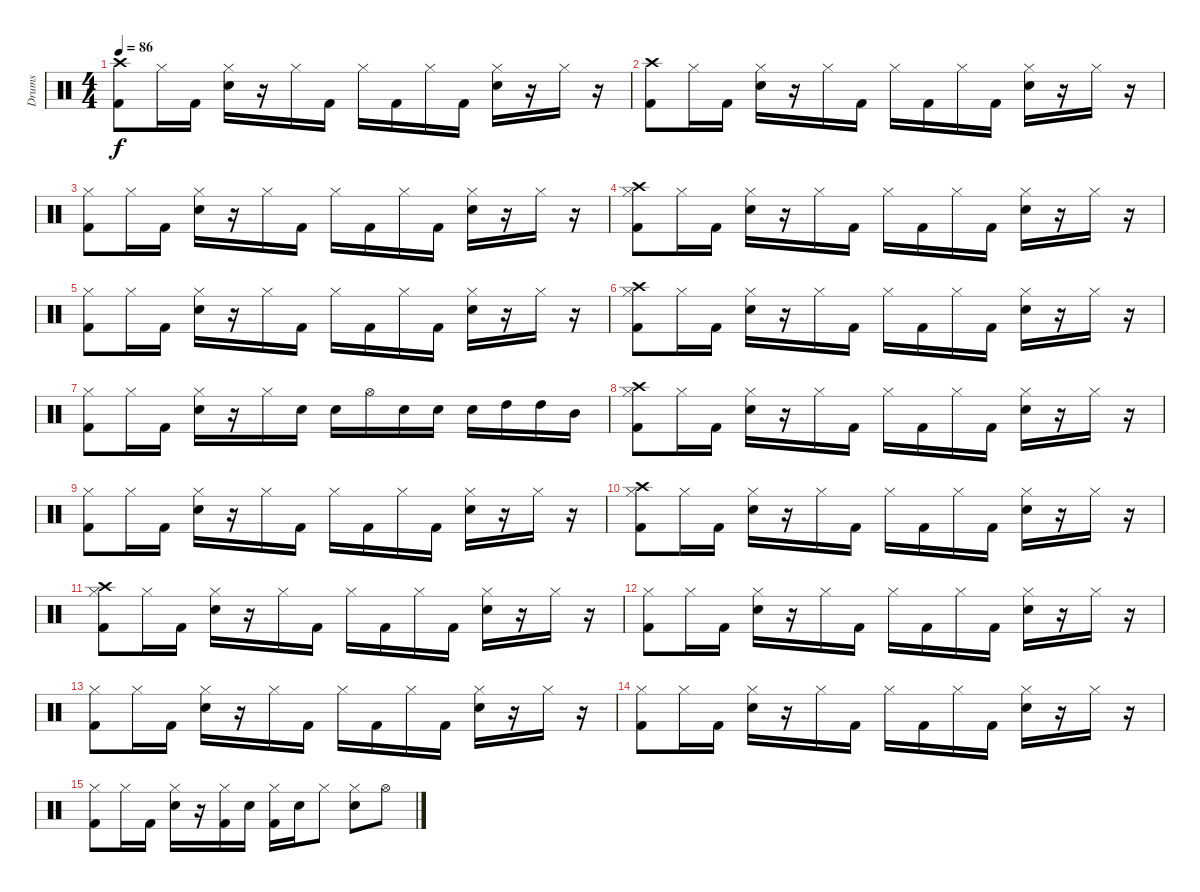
\track ("Drums" "Drums") {instrument percussion}
\staff {score}
\articulation defaults
\ts (4 4)
\tempo 86
\clef neutral
\ks c
("Kick (hit) 2" "Crash high (hit)").8{dy f} "Hi-Hat (closed)".16 "Kick (hit) 2".16 ("Snare (hit) 2" "Hi-Hat (closed)").16 r.16 "Hi-Hat (closed)".16 "Kick (hit) 2".16 "Hi-Hat (closed)".16 "Kick (hit) 2".16 "Hi-Hat (closed)".16 "Kick (hit) 2".16 ("Snare (hit) 2" "Hi-Hat (closed)").16 r.16 "Hi-Hat (closed)".16 r.16 |
("Kick (hit) 2" "Crash high (hit)").8 "Hi-Hat (closed)".16 "Kick (hit) 2".16 ("Snare (hit) 2" "Hi-Hat (closed)").16 r.16 "Hi-Hat (closed)".16 "Kick (hit) 2".16 "Hi-Hat (closed)".16 "Kick (hit) 2".16 "Hi-Hat (closed)".16 "Kick (hit) 2".16 ("Snare (hit) 2" "Hi-Hat (closed)").16 r.16 "Hi-Hat (closed)".16 r.16 |
("Kick (hit) 2" "Hi-Hat (closed)").8 "Hi-Hat (closed)".16 "Kick (hit) 2".16 ("Snare (hit) 2" "Hi-Hat (closed)").16 r.16 "Hi-Hat (closed)".16 "Kick (hit) 2".16 "Hi-Hat (closed)".16 "Kick (hit) 2".16 "Hi-Hat (closed)".16 "Kick (hit) 2".16 ("Snare (hit) 2" "Hi-Hat (closed)").16 r.16 "Hi-Hat (closed)".16 r.16 |
("Kick (hit) 2" "Hi-Hat (closed)" "Crash high (hit)").8 "Hi-Hat (closed)".16 "Kick (hit) 2".16 ("Snare (hit) 2" "Hi-Hat (closed)").16 r.16 "Hi-Hat (closed)".16 "Kick (hit) 2".16 "Hi-Hat (closed)".16 "Kick (hit) 2".16 "Hi-Hat (closed)".16 "Kick (hit) 2".16 ("Snare (hit) 2" "Hi-Hat (closed)").16 r.16 "Hi-Hat (closed)".16 r.16 |
("Kick (hit) 2" "Hi-Hat (closed)").8 "Hi-Hat (closed)".16 "Kick (hit) 2".16 ("Snare (hit) 2" "Hi-Hat (closed)").16 r.16 "Hi-Hat (closed)".16 "Kick (hit) 2".16 "Hi-Hat (closed)".16 "Kick (hit) 2".16 "Hi-Hat (closed)".16 "Kick (hit) 2".16 ("Snare (hit) 2" "Hi-Hat (closed)").16 r.16 "Hi-Hat (closed)".16 r.16 |
("Kick (hit) 2" "Hi-Hat (closed)" "Crash high (hit)").8 "Hi-Hat (closed)".16 "Kick (hit) 2".16 ("Snare (hit) 2" "Hi-Hat (closed)").16 r.16 "Hi-Hat (closed)".16 "Kick (hit) 2".16 "Hi-Hat (closed)".16 "Kick (hit) 2".16 "Hi-Hat (closed)".16 "Kick (hit) 2".16 ("Snare (hit) 2" "Hi-Hat (closed)").16 r.16 "Hi-Hat (closed)".16 r.16 |
("Kick (hit) 2" "Hi-Hat (closed)").8 "Hi-Hat (closed)".16 "Kick (hit) 2".16 ("Snare (hit) 2" "Hi-Hat (closed)").16 r.16 "Hi-Hat (closed)".16 "Snare (hit) 2".16 "Snare (hit) 2".16 "Hi-Hat (open)".16 "Snare (hit) 2".16 "Snare (hit) 2".16 "Snare (hit) 2".16 "High Tom (hit)".16 "High Tom (hit)".16 "Mid Tom (hit)".16 |
("Kick (hit) 2" "Hi-Hat (closed)" "Crash high (hit)").8 "Hi-Hat (closed)".16 "Kick (hit) 2".16 ("Snare (hit) 2" "Hi-Hat (closed)").16 r.16 "Hi-Hat (closed)".16 "Kick (hit) 2".16 "Hi-Hat (closed)".16 "Kick (hit) 2".16 "Hi-Hat (closed)".16 "Kick (hit) 2".16 ("Snare (hit) 2" "Hi-Hat (closed)").16 r.16 "Hi-Hat (closed)".16 r.16 |
("Kick (hit) 2" "Hi-Hat (closed)").8 "Hi-Hat (closed)".16 "Kick (hit) 2".16 ("Snare (hit) 2" "Hi-Hat (closed)").16 r.16 "Hi-Hat (closed)".16 "Kick (hit) 2".16 "Hi-Hat (closed)".16 "Kick (hit) 2".16 "Hi-Hat (closed)".16 "Kick (hit) 2".16 ("Snare (hit) 2" "Hi-Hat (closed)").16 r.16 "Hi-Hat (closed)".16 r.16 |
("Kick (hit) 2" "Hi-Hat (closed)" "Crash high (hit)").8 "Hi-Hat (closed)".16 "Kick (hit) 2".16 ("Snare (hit) 2" "Hi-Hat (closed)").16 r.16 "Hi-Hat (closed)".16 "Kick (hit) 2".16 "Hi-Hat (closed)".16 "Kick (hit) 2".16 "Hi-Hat (closed)".16 "Kick (hit) 2".16 ("Snare (hit) 2" "Hi-Hat (closed)").16 r.16 "Hi-Hat (closed)".16 r.16 |
("Kick (hit) 2" "Hi-Hat (closed)" "Crash high (hit)").8 "Hi-Hat (closed)".16 "Kick (hit) 2".16 ("Snare (hit) 2" "Hi-Hat (closed)").16 r.16 "Hi-Hat (closed)".16 "Kick (hit) 2".16 "Hi-Hat (closed)".16 "Kick (hit) 2".16 "Hi-Hat (closed)".16 "Kick (hit) 2".16 ("Snare (hit) 2" "Hi-Hat (closed)").16 r.16 "Hi-Hat (closed)".16 r.16 |
("Kick (hit) 2" "Hi-Hat (closed)").8 "Hi-Hat (closed)".16 "Kick (hit) 2".16 ("Snare (hit) 2" "Hi-Hat (closed)").16 r.16 "Hi-Hat (closed)".16 "Kick (hit) 2".16 "Hi-Hat (closed)".16 "Kick (hit) 2".16 "Hi-Hat (closed)".16 "Kick (hit) 2".16 ("Snare (hit) 2" "Hi-Hat (closed)").16 r.16 "Hi-Hat (closed)".16 r.16 |
("Kick (hit) 2" "Hi-Hat (closed)").8 "Hi-Hat (closed)".16 "Kick (hit) 2".16 ("Snare (hit) 2" "Hi-Hat (closed)").16 r.16 "Hi-Hat (closed)".16 "Kick (hit) 2".16 "Hi-Hat (closed)".16 "Kick (hit) 2".16 "Hi-Hat (closed)".16 "Kick (hit) 2".16 ("Snare (hit) 2" "Hi-Hat (closed)").16 r.16 "Hi-Hat (closed)".16 r.16 |
("Kick (hit) 2" "Hi-Hat (closed)").8 "Hi-Hat (closed)".16 "Kick (hit) 2".16 ("Snare (hit) 2" "Hi-Hat (closed)").16 r.16 "Hi-Hat (closed)".16 "Kick (hit) 2".16 "Hi-Hat (closed)".16 "Kick (hit) 2".16 "Hi-Hat (closed)".16 "Kick (hit) 2".16 ("Snare (hit) 2" "Hi-Hat (closed)").16 r.16 "Hi-Hat (closed)".16 r.16 |
("Kick (hit) 2" "Hi-Hat (closed)").8 "Hi-Hat (closed)".16 "Kick (hit) 2".16 ("Snare (hit) 2" "Hi-Hat (closed)").16 r.16 ("Hi-Hat (closed)" "Kick (hit) 2").16 "Snare (hit) 2".16 ("Kick (hit) 2" "Hi-Hat (closed)").16 "Snare (hit) 2".16 "Hi-Hat (closed)".8 ("Snare (hit) 2" "Hi-Hat (closed)").8 "Hi-Hat (open)".8
